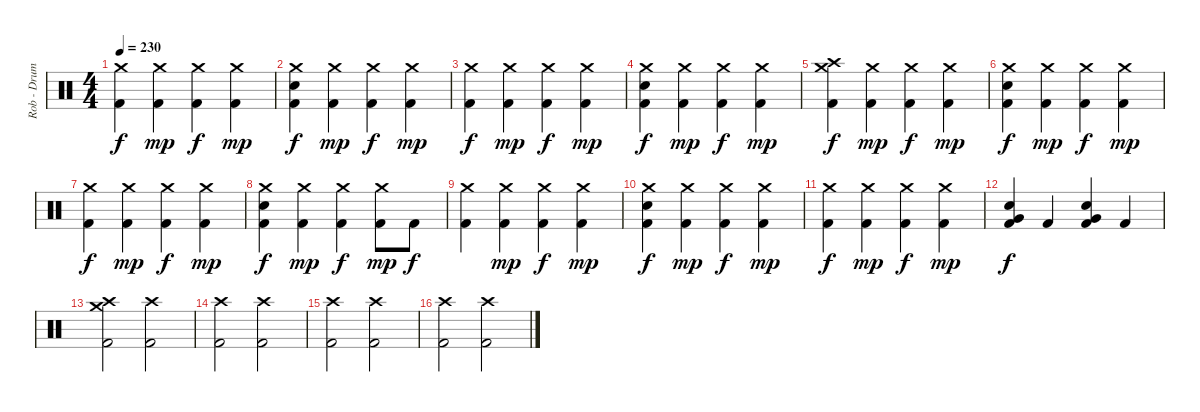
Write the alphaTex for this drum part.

\track ("Rob - Drums" "Rob - Drum") {instrument percussion}
\staff {score}
\articulation defaults
\ts (4 4)
\tempo 230
\clef neutral
\ks c
("Crash medium (hit)" "Kick (hit) 2").4{dy f} ("Crash medium (hit)" "Kick (hit) 2").4{dy mp} ("Crash medium (hit)" "Kick (hit) 2").4{dy f} ("Crash medium (hit)" "Kick (hit) 2").4{dy mp} |
("Crash medium (hit)" "Electric Snare (hit)" "Kick (hit) 2").4{dy f} ("Crash medium (hit)" "Kick (hit) 2").4{dy mp} ("Crash medium (hit)" "Kick (hit) 2").4{dy f} ("Crash medium (hit)" "Kick (hit) 2").4{dy mp} |
("Crash medium (hit)" "Kick (hit) 2").4{dy f} ("Crash medium (hit)" "Kick (hit) 2").4{dy mp} ("Crash medium (hit)" "Kick (hit) 2").4{dy f} ("Crash medium (hit)" "Kick (hit) 2").4{dy mp} |
("Crash medium (hit)" "Electric Snare (hit)" "Kick (hit) 2").4{dy f} ("Crash medium (hit)" "Kick (hit) 2").4{dy mp} ("Crash medium (hit)" "Kick (hit) 2").4{dy f} ("Crash medium (hit)" "Kick (hit) 2").4{dy mp} |
("Crash high (hit)" "Crash medium (hit)" "Kick (hit) 2").4{dy f} ("Crash medium (hit)" "Kick (hit) 2").4{dy mp} ("Crash medium (hit)" "Kick (hit) 2").4{dy f} ("Crash medium (hit)" "Kick (hit) 2").4{dy mp} |
("Crash medium (hit)" "Electric Snare (hit)" "Kick (hit) 2").4{dy f} ("Crash medium (hit)" "Kick (hit) 2").4{dy mp} ("Crash medium (hit)" "Kick (hit) 2").4{dy f} ("Crash medium (hit)" "Kick (hit) 2").4{dy mp} |
("Crash medium (hit)" "Kick (hit) 2").4{dy f} ("Crash medium (hit)" "Kick (hit) 2").4{dy mp} ("Crash medium (hit)" "Kick (hit) 2").4{dy f} ("Crash medium (hit)" "Kick (hit) 2").4{dy mp} |
("Crash medium (hit)" "Electric Snare (hit)" "Kick (hit) 2").4{dy f} ("Crash medium (hit)" "Kick (hit) 2").4{dy mp} ("Crash medium (hit)" "Kick (hit) 2").4{dy f} ("Crash medium (hit)" "Kick (hit) 2").8{dy mp} "Kick (hit) 2".8{dy f} |
("Crash medium (hit)" "Kick (hit) 2").4 ("Crash medium (hit)" "Kick (hit) 2").4{dy mp} ("Crash medium (hit)" "Kick (hit) 2").4{dy f} ("Crash medium (hit)" "Kick (hit) 2").4{dy mp} |
("Crash medium (hit)" "Electric Snare (hit)" "Kick (hit) 2").4{dy f} ("Crash medium (hit)" "Kick (hit) 2").4{dy mp} ("Crash medium (hit)" "Kick (hit) 2").4{dy f} ("Crash medium (hit)" "Kick (hit) 2").4{dy mp} |
("Crash medium (hit)" "Kick (hit) 2").4{dy f} ("Crash medium (hit)" "Kick (hit) 2").4{dy mp} ("Crash medium (hit)" "Kick (hit) 2").4{dy f} ("Crash medium (hit)" "Kick (hit) 2").4{dy mp} |
("Very Low Tom (hit)" "Electric Snare (hit)" "Kick (hit) 2").4{dy f} "Kick (hit) 2".4 ("Very Low Tom (hit)" "Electric Snare (hit)" "Kick (hit) 2").4 "Kick (hit) 2".4 |
("Crash medium (hit)" "Crash high (hit)" "Kick (hit) 2").2 ("Crash high (hit)" "Kick (hit) 2").2 |
("Crash high (hit)" "Kick (hit) 2").2 ("Crash high (hit)" "Kick (hit) 2").2 |
("Crash high (hit)" "Kick (hit) 2").2 ("Crash high (hit)" "Kick (hit) 2").2 |
("Crash high (hit)" "Kick (hit) 2").2 ("Crash high (hit)" "Kick (hit) 2").2
